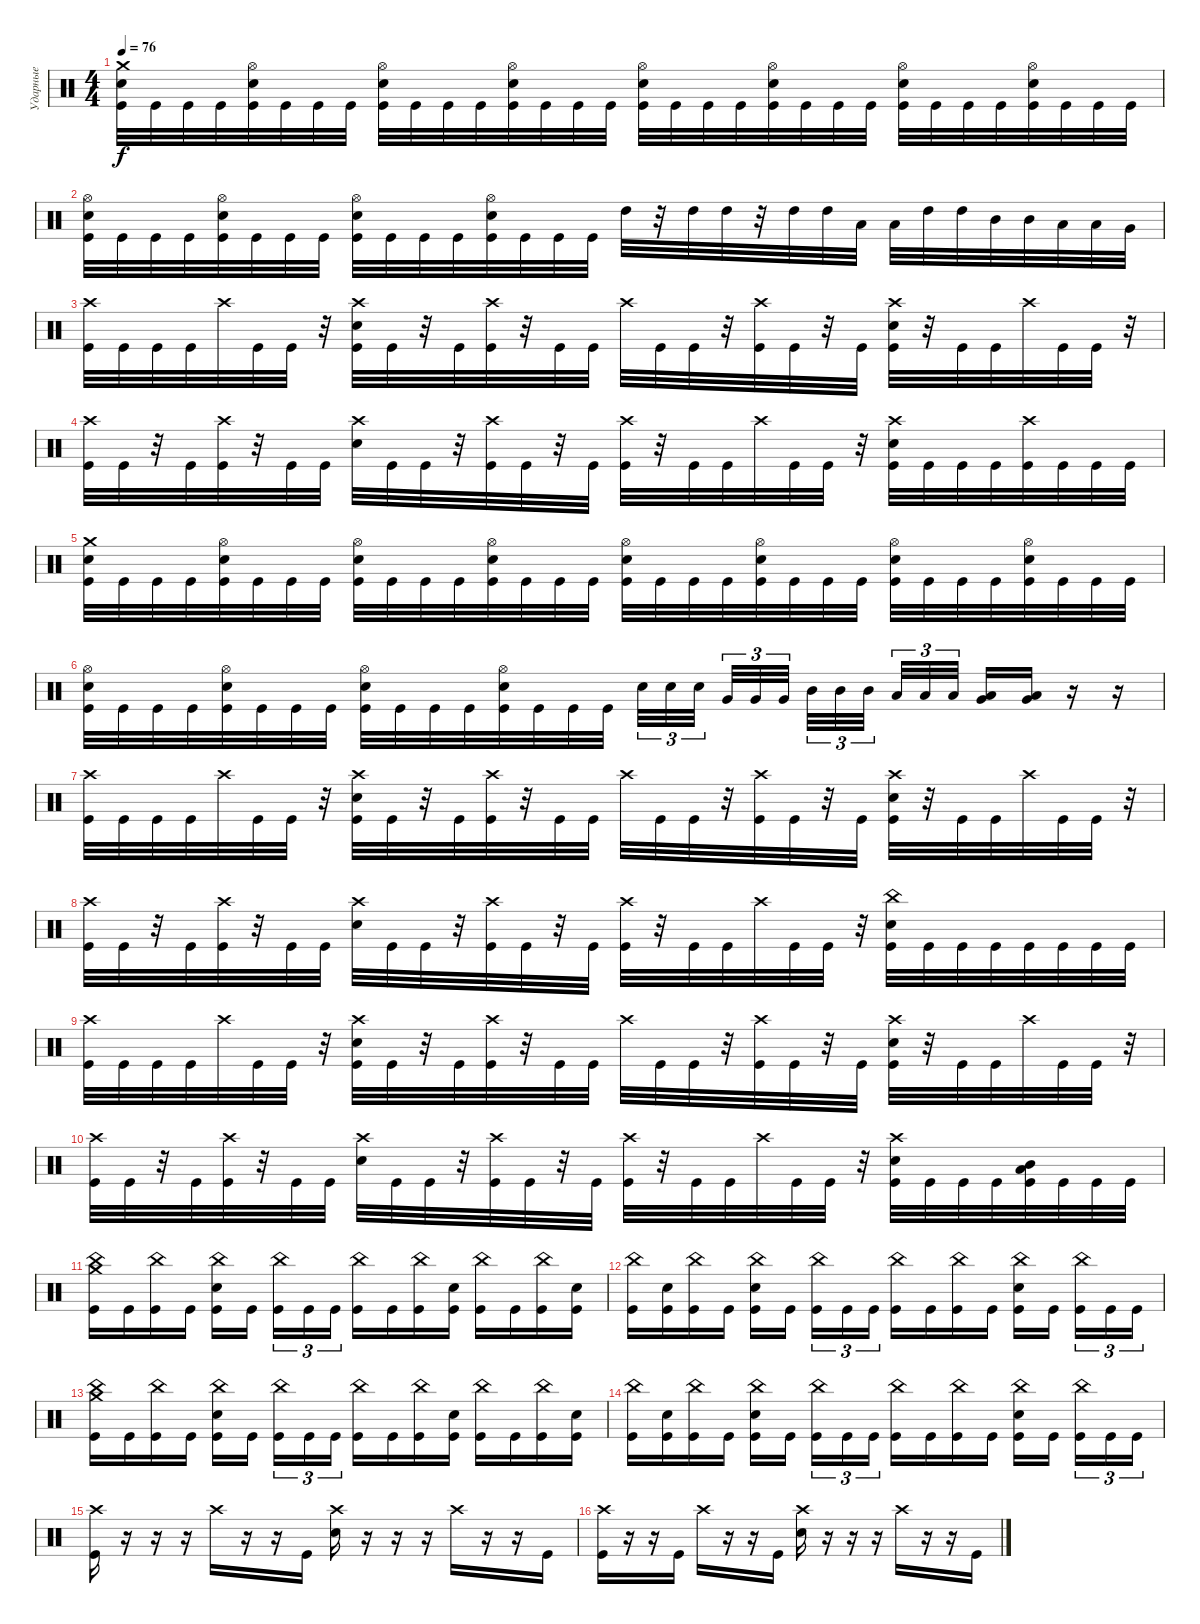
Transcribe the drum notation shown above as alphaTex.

\track ("Ударные" "Ударные") {instrument percussion}
\staff {score}
\articulation defaults
\ts (4 4)
\tempo 76
\clef neutral
\ks c
("Crash medium (hit)" "Snare (hit) 2" "Kick (hit)").32{dy f} "Kick (hit)".32 "Kick (hit)".32 "Kick (hit)".32 ("Hi-Hat (open)" "Snare (hit) 2" "Kick (hit)").32 "Kick (hit)".32 "Kick (hit)".32 "Kick (hit)".32 ("Hi-Hat (open)" "Snare (hit) 2" "Kick (hit)").32 "Kick (hit)".32 "Kick (hit)".32 "Kick (hit)".32 ("Hi-Hat (open)" "Snare (hit) 2" "Kick (hit)").32 "Kick (hit)".32 "Kick (hit)".32 "Kick (hit)".32 ("Hi-Hat (open)" "Snare (hit) 2" "Kick (hit)").32 "Kick (hit)".32 "Kick (hit)".32 "Kick (hit)".32 ("Hi-Hat (open)" "Snare (hit) 2" "Kick (hit)").32 "Kick (hit)".32 "Kick (hit)".32 "Kick (hit)".32 ("Hi-Hat (open)" "Snare (hit) 2" "Kick (hit)").32 "Kick (hit)".32 "Kick (hit)".32 "Kick (hit)".32 ("Hi-Hat (open)" "Snare (hit) 2" "Kick (hit)").32 "Kick (hit)".32 "Kick (hit)".32 "Kick (hit)".32 |
("Hi-Hat (open)" "Snare (hit) 2" "Kick (hit)").32 "Kick (hit)".32 "Kick (hit)".32 "Kick (hit)".32 ("Hi-Hat (open)" "Snare (hit) 2" "Kick (hit)").32 "Kick (hit)".32 "Kick (hit)".32 "Kick (hit)".32 ("Hi-Hat (open)" "Snare (hit) 2" "Kick (hit)").32 "Kick (hit)".32 "Kick (hit)".32 "Kick (hit)".32 ("Hi-Hat (open)" "Snare (hit) 2" "Kick (hit)").32 "Kick (hit)".32 "Kick (hit)".32 "Kick (hit)".32 "High Tom (hit)".32 r.32 "High Tom (hit)".32 "High Tom (hit)".32 r.32 "High Tom (hit)".32 "High Tom (hit)".32 "Low Tom (hit)".32 "Low Tom (hit)".32 "High Tom (hit)".32 "High Tom (hit)".32 "Mid Tom (hit)".32 "Mid Tom (hit)".32 "Low Tom (hit)".32 "Low Tom (hit)".32 "Very Low Tom (hit)".32 |
("Crash high (hit)" "Kick (hit)").32 "Kick (hit)".32 "Kick (hit)".32 "Kick (hit)".32 "Crash high (hit)".32 "Kick (hit)".32 "Kick (hit)".32 r.32 ("Crash high (hit)" "Snare (hit) 2" "Kick (hit)").32 "Kick (hit)".32 r.32 "Kick (hit)".32 ("Crash high (hit)" "Kick (hit)").32 r.32 "Kick (hit)".32 "Kick (hit)".32 "Crash high (hit)".32 "Kick (hit)".32 "Kick (hit)".32 r.32 ("Crash high (hit)" "Kick (hit)").32 "Kick (hit)".32 r.32 "Kick (hit)".32 ("Crash high (hit)" "Snare (hit) 2" "Kick (hit)").32 r.32 "Kick (hit)".32 "Kick (hit)".32 "Crash high (hit)".32 "Kick (hit)".32 "Kick (hit)".32 r.32 |
("Crash high (hit)" "Kick (hit)").32 "Kick (hit)".32 r.32 "Kick (hit)".32 ("Crash high (hit)" "Kick (hit)").32 r.32 "Kick (hit)".32 "Kick (hit)".32 ("Crash high (hit)" "Snare (hit) 2").32 "Kick (hit)".32 "Kick (hit)".32 r.32 ("Crash high (hit)" "Kick (hit)").32 "Kick (hit)".32 r.32 "Kick (hit)".32 ("Crash high (hit)" "Kick (hit)").32 r.32 "Kick (hit)".32 "Kick (hit)".32 "Crash high (hit)".32 "Kick (hit)".32 "Kick (hit)".32 r.32 ("Crash high (hit)" "Snare (hit) 2" "Kick (hit)").32 "Kick (hit)".32 "Kick (hit)".32 "Kick (hit)".32 ("Crash high (hit)" "Kick (hit)").32 "Kick (hit)".32 "Kick (hit)".32 "Kick (hit)".32 |
("Crash medium (hit)" "Snare (hit) 2" "Kick (hit)").32 "Kick (hit)".32 "Kick (hit)".32 "Kick (hit)".32 ("Hi-Hat (open)" "Snare (hit) 2" "Kick (hit)").32 "Kick (hit)".32 "Kick (hit)".32 "Kick (hit)".32 ("Hi-Hat (open)" "Snare (hit) 2" "Kick (hit)").32 "Kick (hit)".32 "Kick (hit)".32 "Kick (hit)".32 ("Hi-Hat (open)" "Snare (hit) 2" "Kick (hit)").32 "Kick (hit)".32 "Kick (hit)".32 "Kick (hit)".32 ("Hi-Hat (open)" "Snare (hit) 2" "Kick (hit)").32 "Kick (hit)".32 "Kick (hit)".32 "Kick (hit)".32 ("Hi-Hat (open)" "Snare (hit) 2" "Kick (hit)").32 "Kick (hit)".32 "Kick (hit)".32 "Kick (hit)".32 ("Hi-Hat (open)" "Snare (hit) 2" "Kick (hit)").32 "Kick (hit)".32 "Kick (hit)".32 "Kick (hit)".32 ("Hi-Hat (open)" "Snare (hit) 2" "Kick (hit)").32 "Kick (hit)".32 "Kick (hit)".32 "Kick (hit)".32 |
("Hi-Hat (open)" "Snare (hit) 2" "Kick (hit)").32 "Kick (hit)".32 "Kick (hit)".32 "Kick (hit)".32 ("Hi-Hat (open)" "Snare (hit) 2" "Kick (hit)").32 "Kick (hit)".32 "Kick (hit)".32 "Kick (hit)".32 ("Hi-Hat (open)" "Snare (hit) 2" "Kick (hit)").32 "Kick (hit)".32 "Kick (hit)".32 "Kick (hit)".32 ("Hi-Hat (open)" "Snare (hit) 2" "Kick (hit)").32 "Kick (hit)".32 "Kick (hit)".32 "Kick (hit)".32 "Snare (hit) 2".32{tu (3 2)} "Snare (hit) 2".32{tu (3 2)} "Snare (hit) 2".32{tu (3 2)} "Very Low Tom (hit)".32{tu (3 2)} "Very Low Tom (hit)".32{tu (3 2)} "Very Low Tom (hit)".32{tu (3 2)} "Mid Tom (hit)".32{tu (3 2)} "Mid Tom (hit)".32{tu (3 2)} "Mid Tom (hit)".32{tu (3 2)} "Low Tom (hit)".32{tu (3 2)} "Low Tom (hit)".32{tu (3 2)} "Low Tom (hit)".32{tu (3 2)} ("Very Low Tom (hit)" "Low Tom (hit)").16 ("Very Low Tom (hit)" "Low Tom (hit)").16 r.16 r.16 |
("Crash high (hit)" "Kick (hit)").32 "Kick (hit)".32 "Kick (hit)".32 "Kick (hit)".32 "Crash high (hit)".32 "Kick (hit)".32 "Kick (hit)".32 r.32 ("Crash high (hit)" "Snare (hit) 2" "Kick (hit)").32 "Kick (hit)".32 r.32 "Kick (hit)".32 ("Crash high (hit)" "Kick (hit)").32 r.32 "Kick (hit)".32 "Kick (hit)".32 "Crash high (hit)".32 "Kick (hit)".32 "Kick (hit)".32 r.32 ("Crash high (hit)" "Kick (hit)").32 "Kick (hit)".32 r.32 "Kick (hit)".32 ("Crash high (hit)" "Snare (hit) 2" "Kick (hit)").32 r.32 "Kick (hit)".32 "Kick (hit)".32 "Crash high (hit)".32 "Kick (hit)".32 "Kick (hit)".32 r.32 |
("Crash high (hit)" "Kick (hit)").32 "Kick (hit)".32 r.32 "Kick (hit)".32 ("Crash high (hit)" "Kick (hit)").32 r.32 "Kick (hit)".32 "Kick (hit)".32 ("Crash high (hit)" "Snare (hit) 2").32 "Kick (hit)".32 "Kick (hit)".32 r.32 ("Crash high (hit)" "Kick (hit)").32 "Kick (hit)".32 r.32 "Kick (hit)".32 ("Crash high (hit)" "Kick (hit)").32 r.32 "Kick (hit)".32 "Kick (hit)".32 "Crash high (hit)".32 "Kick (hit)".32 "Kick (hit)".32 r.32 ("China (hit)" "Snare (hit) 2" "Kick (hit)").32 "Kick (hit)".32 "Kick (hit)".32 "Kick (hit)".32 "Kick (hit)".32 "Kick (hit)".32 "Kick (hit)".32 "Kick (hit)".32 |
("Crash high (hit)" "Kick (hit)").32 "Kick (hit)".32 "Kick (hit)".32 "Kick (hit)".32 "Crash high (hit)".32 "Kick (hit)".32 "Kick (hit)".32 r.32 ("Crash high (hit)" "Snare (hit) 2" "Kick (hit)").32 "Kick (hit)".32 r.32 "Kick (hit)".32 ("Crash high (hit)" "Kick (hit)").32 r.32 "Kick (hit)".32 "Kick (hit)".32 "Crash high (hit)".32 "Kick (hit)".32 "Kick (hit)".32 r.32 ("Crash high (hit)" "Kick (hit)").32 "Kick (hit)".32 r.32 "Kick (hit)".32 ("Crash high (hit)" "Snare (hit) 2" "Kick (hit)").32 r.32 "Kick (hit)".32 "Kick (hit)".32 "Crash high (hit)".32 "Kick (hit)".32 "Kick (hit)".32 r.32 |
("Crash high (hit)" "Kick (hit)").32 "Kick (hit)".32 r.32 "Kick (hit)".32 ("Crash high (hit)" "Kick (hit)").32 r.32 "Kick (hit)".32 "Kick (hit)".32 ("Crash high (hit)" "Snare (hit) 2").32 "Kick (hit)".32 "Kick (hit)".32 r.32 ("Crash high (hit)" "Kick (hit)").32 "Kick (hit)".32 r.32 "Kick (hit)".32 ("Crash high (hit)" "Kick (hit)").32 r.32 "Kick (hit)".32 "Kick (hit)".32 "Crash high (hit)".32 "Kick (hit)".32 "Kick (hit)".32 r.32 ("Crash high (hit)" "Snare (hit) 2" "Kick (hit)").32 "Kick (hit)".32 "Kick (hit)".32 "Kick (hit)".32 ("Mid Tom (hit)" "Low Tom (hit)" "Kick (hit)").32 "Kick (hit)".32 "Kick (hit)".32 "Kick (hit)".32 |
("Crash medium (hit)" "China (hit)" "Kick (hit)").16 "Kick (hit)".16 ("China (hit)" "Kick (hit)").16 "Kick (hit)".16 ("China (hit)" "Snare (hit) 2" "Kick (hit)").16 "Kick (hit)".16 ("China (hit)" "Kick (hit)").16{tu (3 2)} "Kick (hit)".16{tu (3 2)} "Kick (hit)".16{tu (3 2)} ("China (hit)" "Kick (hit)").16 "Kick (hit)".16 ("China (hit)" "Kick (hit)").16 ("Snare (hit) 2" "Kick (hit)").16 ("China (hit)" "Kick (hit)").16 "Kick (hit)".16 ("China (hit)" "Kick (hit)").16 ("Snare (hit) 2" "Kick (hit)").16 |
("China (hit)" "Kick (hit)").16 ("Snare (hit) 2" "Kick (hit)").16 ("China (hit)" "Kick (hit)").16 "Kick (hit)".16 ("China (hit)" "Snare (hit) 2" "Kick (hit)").16 "Kick (hit)".16 ("China (hit)" "Kick (hit)").16{tu (3 2)} "Kick (hit)".16{tu (3 2)} "Kick (hit)".16{tu (3 2)} ("China (hit)" "Kick (hit)").16 "Kick (hit)".16 ("China (hit)" "Kick (hit)").16 "Kick (hit)".16 ("China (hit)" "Snare (hit) 2" "Kick (hit)").16 "Kick (hit)".16 ("China (hit)" "Kick (hit)").16{tu (3 2)} "Kick (hit)".16{tu (3 2)} "Kick (hit)".16{tu (3 2)} |
("Crash medium (hit)" "China (hit)" "Kick (hit)").16 "Kick (hit)".16 ("China (hit)" "Kick (hit)").16 "Kick (hit)".16 ("China (hit)" "Snare (hit) 2" "Kick (hit)").16 "Kick (hit)".16 ("China (hit)" "Kick (hit)").16{tu (3 2)} "Kick (hit)".16{tu (3 2)} "Kick (hit)".16{tu (3 2)} ("China (hit)" "Kick (hit)").16 "Kick (hit)".16 ("China (hit)" "Kick (hit)").16 ("Snare (hit) 2" "Kick (hit)").16 ("China (hit)" "Kick (hit)").16 "Kick (hit)".16 ("China (hit)" "Kick (hit)").16 ("Snare (hit) 2" "Kick (hit)").16 |
("China (hit)" "Kick (hit)").16 ("Snare (hit) 2" "Kick (hit)").16 ("China (hit)" "Kick (hit)").16 "Kick (hit)".16 ("China (hit)" "Snare (hit) 2" "Kick (hit)").16 "Kick (hit)".16 ("China (hit)" "Kick (hit)").16{tu (3 2)} "Kick (hit)".16{tu (3 2)} "Kick (hit)".16{tu (3 2)} ("China (hit)" "Kick (hit)").16 "Kick (hit)".16 ("China (hit)" "Kick (hit)").16 "Kick (hit)".16 ("China (hit)" "Snare (hit) 2" "Kick (hit)").16 "Kick (hit)".16 ("China (hit)" "Kick (hit)").16{tu (3 2)} "Kick (hit)".16{tu (3 2)} "Kick (hit)".16{tu (3 2)} |
("Crash high (hit)" "Kick (hit)").16 r.16 r.16 r.16 "Crash high (hit)".16 r.16 r.16 "Kick (hit)".16 ("Crash high (hit)" "Snare (hit) 2").16 r.16 r.16 r.16 "Crash high (hit)".16 r.16 r.16 "Kick (hit)".16 |
("Crash high (hit)" "Kick (hit)").16 r.16 r.16 "Kick (hit)".16 "Crash high (hit)".16 r.16 r.16 "Kick (hit)".16 ("Crash high (hit)" "Snare (hit) 2").16 r.16 r.16 r.16 "Crash high (hit)".16 r.16 r.16 "Kick (hit)".16
